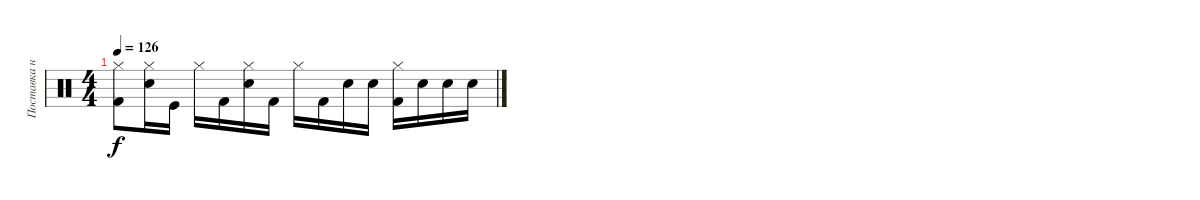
\track ("Поставка на ударки" "Поставка н") {instrument percussion}
\staff {score}
\articulation defaults
\ts (4 4)
\tempo 126
\clef neutral
\ks c
("Hi-Hat (closed)" "Kick (hit) 2").8{dy f} ("Hi-Hat (closed)" "Snare (hit) 2").16 "Kick (hit)".16 "Hi-Hat (closed)".16 "Kick (hit) 2".16 ("Snare (hit) 2" "Hi-Hat (closed)").16 "Kick (hit) 2".16 "Hi-Hat (closed)".16 "Kick (hit) 2".16 "Snare (hit) 2".16 "Snare (hit) 2".16 ("Hi-Hat (closed)" "Kick (hit) 2").16 "Snare (hit) 2".16 "Snare (hit) 2".16 "Snare (hit) 2".16
